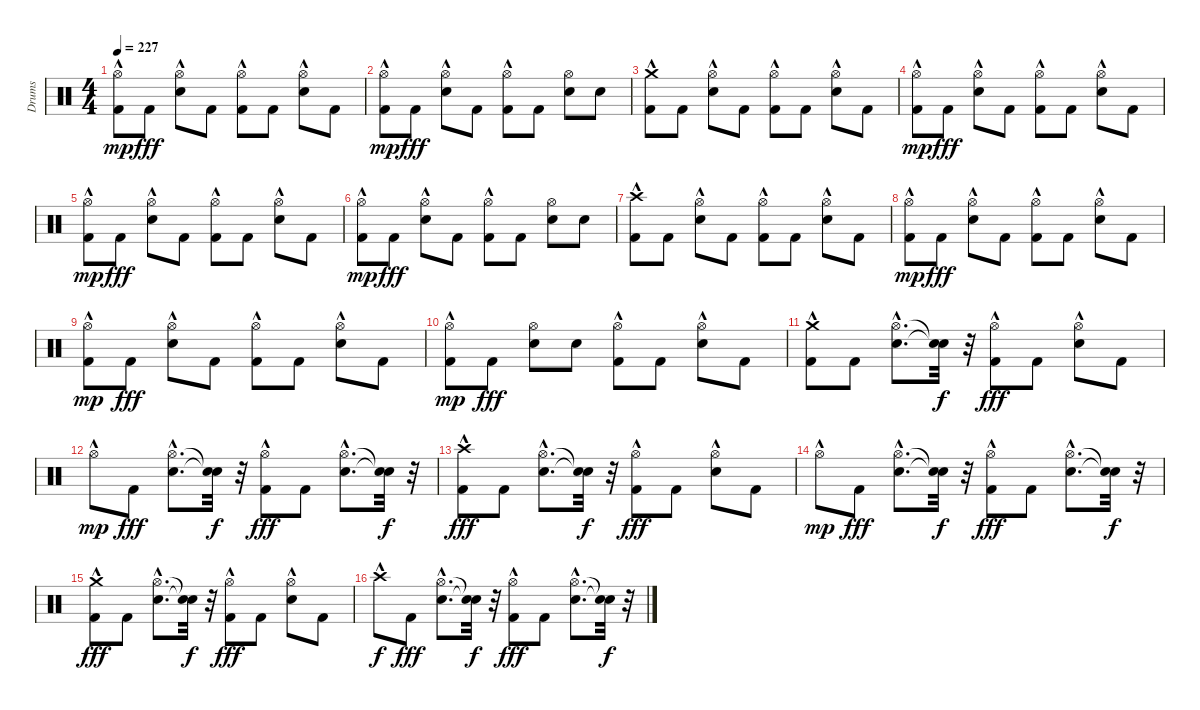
\track ("Drums" "Drums") {instrument percussion}
\staff {score}
\articulation defaults
\ts (4 4)
\tempo 227
\clef neutral
\ks c
("Kick (hit) 2" "Hi-Hat (open)"{hac}).8{dy mp} "Kick (hit) 2".8{dy fff} ("Hi-Hat (open)"{hac} "Snare (hit) 2"{hac}).8 "Kick (hit) 2".8 ("Hi-Hat (open)"{hac} "Kick (hit) 2").8 "Kick (hit) 2".8 ("Hi-Hat (open)"{hac} "Snare (hit) 2"{hac}).8 "Kick (hit) 2".8 |
("Kick (hit) 2" "Hi-Hat (open)"{hac}).8{dy mp} "Kick (hit) 2".8{dy fff} ("Hi-Hat (open)"{hac} "Snare (hit) 2"{hac}).8 "Kick (hit) 2".8 ("Hi-Hat (open)"{hac} "Kick (hit) 2").8 "Kick (hit) 2".8 ("Hi-Hat (open)" "Snare (hit) 2").8 "Snare (hit) 2".8 |
("Kick (hit) 2" "Crash medium (hit)"{hac}).8 "Kick (hit) 2".8 ("Hi-Hat (open)"{hac} "Snare (hit) 2"{hac}).8 "Kick (hit) 2".8 ("Hi-Hat (open)"{hac} "Kick (hit) 2").8 "Kick (hit) 2".8 ("Hi-Hat (open)"{hac} "Snare (hit) 2"{hac}).8 "Kick (hit) 2".8 |
("Kick (hit) 2" "Hi-Hat (open)"{hac}).8{dy mp} "Kick (hit) 2".8{dy fff} ("Hi-Hat (open)"{hac} "Snare (hit) 2"{hac}).8 "Kick (hit) 2".8 ("Hi-Hat (open)"{hac} "Kick (hit) 2").8 "Kick (hit) 2".8 ("Hi-Hat (open)"{hac} "Snare (hit) 2"{hac}).8 "Kick (hit) 2".8 |
("Kick (hit) 2" "Hi-Hat (open)"{hac}).8{dy mp} "Kick (hit) 2".8{dy fff} ("Hi-Hat (open)"{hac} "Snare (hit) 2"{hac}).8 "Kick (hit) 2".8 ("Hi-Hat (open)"{hac} "Kick (hit) 2").8 "Kick (hit) 2".8 ("Hi-Hat (open)"{hac} "Snare (hit) 2"{hac}).8 "Kick (hit) 2".8 |
("Kick (hit) 2" "Hi-Hat (open)"{hac}).8{dy mp} "Kick (hit) 2".8{dy fff} ("Hi-Hat (open)"{hac} "Snare (hit) 2"{hac}).8 "Kick (hit) 2".8 ("Hi-Hat (open)"{hac} "Kick (hit) 2").8 "Kick (hit) 2".8 ("Hi-Hat (open)" "Snare (hit) 2").8 "Snare (hit) 2".8 |
("Kick (hit) 2" "Crash high (hit)"{hac}).8 "Kick (hit) 2".8 ("Hi-Hat (open)"{hac} "Snare (hit) 2"{hac}).8 "Kick (hit) 2".8 ("Hi-Hat (open)"{hac} "Kick (hit) 2").8 "Kick (hit) 2".8 ("Hi-Hat (open)"{hac} "Snare (hit) 2"{hac}).8 "Kick (hit) 2".8 |
("Kick (hit) 2" "Hi-Hat (open)"{hac}).8{dy mp} "Kick (hit) 2".8{dy fff} ("Hi-Hat (open)"{hac} "Snare (hit) 2"{hac}).8 "Kick (hit) 2".8 ("Hi-Hat (open)"{hac} "Kick (hit) 2").8 "Kick (hit) 2".8 ("Hi-Hat (open)"{hac} "Snare (hit) 2"{hac}).8 "Kick (hit) 2".8 |
("Kick (hit) 2" "Hi-Hat (open)"{hac}).8{dy mp} "Kick (hit) 2".8{dy fff} ("Hi-Hat (open)"{hac} "Snare (hit) 2"{hac}).8 "Kick (hit) 2".8 ("Hi-Hat (open)"{hac} "Kick (hit) 2").8 "Kick (hit) 2".8 ("Hi-Hat (open)"{hac} "Snare (hit) 2"{hac}).8 "Kick (hit) 2".8 |
("Kick (hit) 2" "Hi-Hat (open)"{hac}).8{dy mp} "Kick (hit) 2".8{dy fff} ("Hi-Hat (open)" "Snare (hit) 2").8 "Snare (hit) 2".8 ("Hi-Hat (open)"{hac} "Kick (hit) 2").8 "Kick (hit) 2".8 ("Hi-Hat (open)"{hac} "Snare (hit) 2"{hac}).8 "Kick (hit) 2".8 |
("Kick (hit) 2" "Crash medium (hit)"{hac}).8 "Kick (hit) 2".8 ("Hi-Hat (open)"{hac} "Snare (hit) 2"{hac}).8{d} ("Snare (hit)"{t} "Snare (hit)"{t}).32{dy f} r.32 ("Hi-Hat (open)"{hac} "Kick (hit) 2").8{dy fff} "Kick (hit) 2".8 ("Hi-Hat (open)"{hac} "Snare (hit) 2"{hac}).8 "Kick (hit) 2".8 |
"Hi-Hat (open)"{hac}.8{dy mp} "Kick (hit) 2".8{dy fff} ("Hi-Hat (open)"{hac} "Snare (hit) 2"{hac}).8{d} ("Snare (hit)"{t} "Snare (hit)"{t}).32{dy f} r.32 ("Hi-Hat (open)"{hac} "Kick (hit) 2").8{dy fff} "Kick (hit) 2".8 ("Hi-Hat (open)"{hac} "Snare (hit) 2"{hac}).8{d} ("Snare (hit)"{t} "Snare (hit)"{t}).32{dy f} r.32 |
("Kick (hit) 2" "Crash high (hit)"{hac}).8{dy fff} "Kick (hit) 2".8 ("Hi-Hat (open)"{hac} "Snare (hit) 2"{hac}).8{d} ("Snare (hit)"{t} "Snare (hit)"{t}).32{dy f} r.32 ("Hi-Hat (open)"{hac} "Kick (hit) 2").8{dy fff} "Kick (hit) 2".8 ("Hi-Hat (open)"{hac} "Snare (hit) 2"{hac}).8 "Kick (hit) 2".8 |
"Hi-Hat (open)"{hac}.8{dy mp} "Kick (hit) 2".8{dy fff} ("Hi-Hat (open)"{hac} "Snare (hit) 2"{hac}).8{d} ("Snare (hit)"{t} "Snare (hit)"{t}).32{dy f} r.32 ("Hi-Hat (open)"{hac} "Kick (hit) 2").8{dy fff} "Kick (hit) 2".8 ("Hi-Hat (open)"{hac} "Snare (hit) 2"{hac}).8{d} ("Snare (hit)"{t} "Snare (hit)"{t}).32{dy f} r.32 |
("Kick (hit) 2" "Crash medium (hit)"{hac}).8{dy fff} "Kick (hit) 2".8 ("Hi-Hat (open)"{hac} "Snare (hit) 2"{hac}).8{d} ("Snare (hit)"{t} "Snare (hit)"{t}).32{dy f} r.32 ("Hi-Hat (open)"{hac} "Kick (hit) 2").8{dy fff} "Kick (hit) 2".8 ("Hi-Hat (open)"{hac} "Snare (hit) 2"{hac}).8 "Kick (hit) 2".8 |
"Crash high (hit)"{hac}.8{dy f} "Kick (hit) 2".8{dy fff} ("Hi-Hat (open)"{hac} "Snare (hit) 2"{hac}).8{d} ("Snare (hit)"{t} "Snare (hit)"{t}).32{dy f} r.32 ("Hi-Hat (open)"{hac} "Kick (hit) 2").8{dy fff} "Kick (hit) 2".8 ("Hi-Hat (open)"{hac} "Snare (hit) 2"{hac}).8{d} ("Snare (hit)"{t} "Snare (hit)"{t}).32{dy f} r.32
